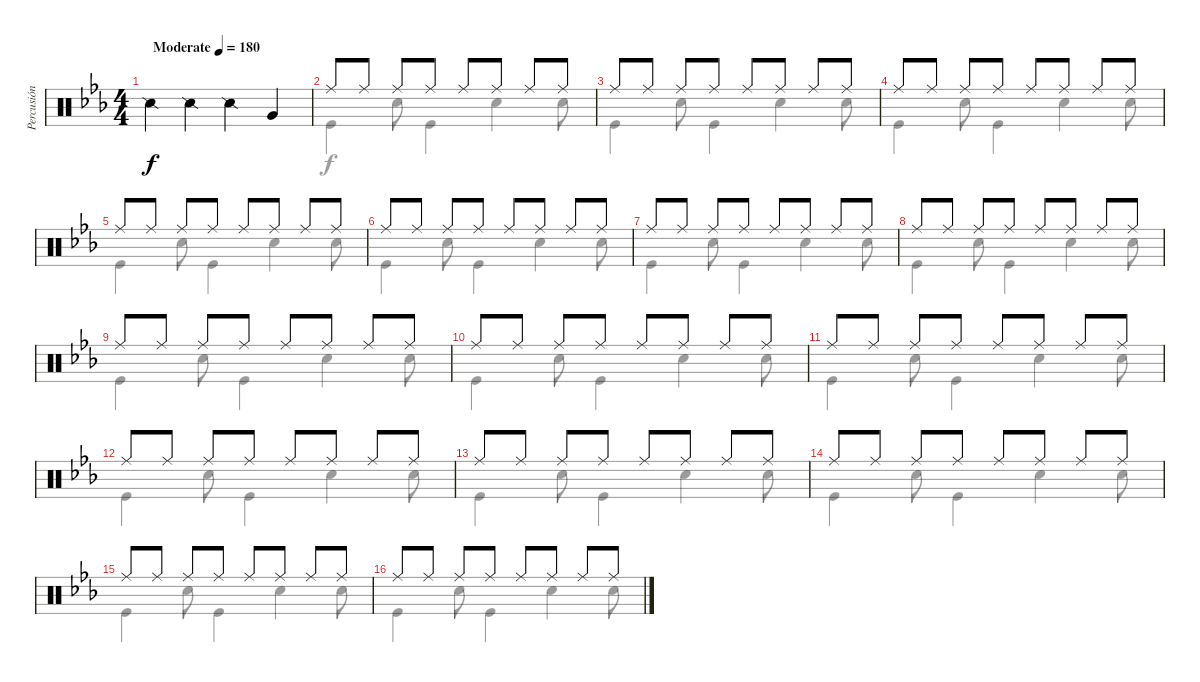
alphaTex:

\track ("Percusión" "Percusión") {instrument percussion}
\staff {score}
\articulation defaults
\voice
\ts (4 4)
\tempo (180 "Moderate")
\clef neutral
\ks eb "Snare (side stick) 2".4{dy f} "Snare (side stick) 2".4 "Snare (side stick) 2".4 "Very Low Tom (hit)".4
|
"Ride (middle)".8 "Ride (middle)".8 "Ride (middle)".8 "Ride (middle)".8 "Ride (middle)".8 "Ride (middle)".8 "Ride (middle)".8 "Ride (middle)".8 |
"Ride (middle)".8 "Ride (middle)".8 "Ride (middle)".8 "Ride (middle)".8 "Ride (middle)".8 "Ride (middle)".8 "Ride (middle)".8 "Ride (middle)".8 |
"Ride (middle)".8 "Ride (middle)".8 "Ride (middle)".8 "Ride (middle)".8 "Ride (middle)".8 "Ride (middle)".8 "Ride (middle)".8 "Ride (middle)".8 |
"Ride (middle)".8 "Ride (middle)".8 "Ride (middle)".8 "Ride (middle)".8 "Ride (middle)".8 "Ride (middle)".8 "Ride (middle)".8 "Ride (middle)".8 |
"Ride (middle)".8 "Ride (middle)".8 "Ride (middle)".8 "Ride (middle)".8 "Ride (middle)".8 "Ride (middle)".8 "Ride (middle)".8 "Ride (middle)".8 |
"Ride (middle)".8 "Ride (middle)".8 "Ride (middle)".8 "Ride (middle)".8 "Ride (middle)".8 "Ride (middle)".8 "Ride (middle)".8 "Ride (middle)".8 |
"Ride (middle)".8 "Ride (middle)".8 "Ride (middle)".8 "Ride (middle)".8 "Ride (middle)".8 "Ride (middle)".8 "Ride (middle)".8 "Ride (middle)".8 |
"Ride (middle)".8 "Ride (middle)".8 "Ride (middle)".8 "Ride (middle)".8 "Ride (middle)".8 "Ride (middle)".8 "Ride (middle)".8 "Ride (middle)".8 |
"Ride (middle)".8 "Ride (middle)".8 "Ride (middle)".8 "Ride (middle)".8 "Ride (middle)".8 "Ride (middle)".8 "Ride (middle)".8 "Ride (middle)".8 |
"Ride (middle)".8 "Ride (middle)".8 "Ride (middle)".8 "Ride (middle)".8 "Ride (middle)".8 "Ride (middle)".8 "Ride (middle)".8 "Ride (middle)".8 |
"Ride (middle)".8 "Ride (middle)".8 "Ride (middle)".8 "Ride (middle)".8 "Ride (middle)".8 "Ride (middle)".8 "Ride (middle)".8 "Ride (middle)".8 |
"Ride (middle)".8 "Ride (middle)".8 "Ride (middle)".8 "Ride (middle)".8 "Ride (middle)".8 "Ride (middle)".8 "Ride (middle)".8 "Ride (middle)".8 |
"Ride (middle)".8 "Ride (middle)".8 "Ride (middle)".8 "Ride (middle)".8 "Ride (middle)".8 "Ride (middle)".8 "Ride (middle)".8 "Ride (middle)".8 |
"Ride (middle)".8 "Ride (middle)".8 "Ride (middle)".8 "Ride (middle)".8 "Ride (middle)".8 "Ride (middle)".8 "Ride (middle)".8 "Ride (middle)".8 |
"Ride (middle)".8 "Ride (middle)".8 "Ride (middle)".8 "Ride (middle)".8 "Ride (middle)".8 "Ride (middle)".8 "Ride (middle)".8 "Ride (middle)".8
\voice
\clef neutral
\ottava regular
\simile none
\ks eb
|
"Kick (hit)".4 "Snare (hit) 2".8 "Kick (hit)".4 "Snare (hit) 2".4 "Snare (hit) 2".8 |
"Kick (hit)".4 "Snare (hit) 2".8 "Kick (hit)".4 "Snare (hit) 2".4 "Snare (hit) 2".8 |
"Kick (hit)".4 "Snare (hit) 2".8 "Kick (hit)".4 "Snare (hit) 2".4 "Snare (hit) 2".8 |
"Kick (hit)".4 "Snare (hit) 2".8 "Kick (hit)".4 "Snare (hit) 2".4 "Snare (hit) 2".8 |
"Kick (hit)".4 "Snare (hit) 2".8 "Kick (hit)".4 "Snare (hit) 2".4 "Snare (hit) 2".8 |
"Kick (hit)".4 "Snare (hit) 2".8 "Kick (hit)".4 "Snare (hit) 2".4 "Snare (hit) 2".8 |
"Kick (hit)".4 "Snare (hit) 2".8 "Kick (hit)".4 "Snare (hit) 2".4 "Snare (hit) 2".8 |
"Kick (hit)".4 "Snare (hit) 2".8 "Kick (hit)".4 "Snare (hit) 2".4 "Snare (hit) 2".8 |
"Kick (hit)".4 "Snare (hit) 2".8 "Kick (hit)".4 "Snare (hit) 2".4 "Snare (hit) 2".8 |
"Kick (hit)".4 "Snare (hit) 2".8 "Kick (hit)".4 "Snare (hit) 2".4 "Snare (hit) 2".8 |
"Kick (hit)".4 "Snare (hit) 2".8 "Kick (hit)".4 "Snare (hit) 2".4 "Snare (hit) 2".8 |
"Kick (hit)".4 "Snare (hit) 2".8 "Kick (hit)".4 "Snare (hit) 2".4 "Snare (hit) 2".8 |
"Kick (hit)".4 "Snare (hit) 2".8 "Kick (hit)".4 "Snare (hit) 2".4 "Snare (hit) 2".8 |
"Kick (hit)".4 "Snare (hit) 2".8 "Kick (hit)".4 "Snare (hit) 2".4 "Snare (hit) 2".8 |
"Kick (hit)".4 "Snare (hit) 2".8 "Kick (hit)".4 "Snare (hit) 2".4 "Snare (hit) 2".8
